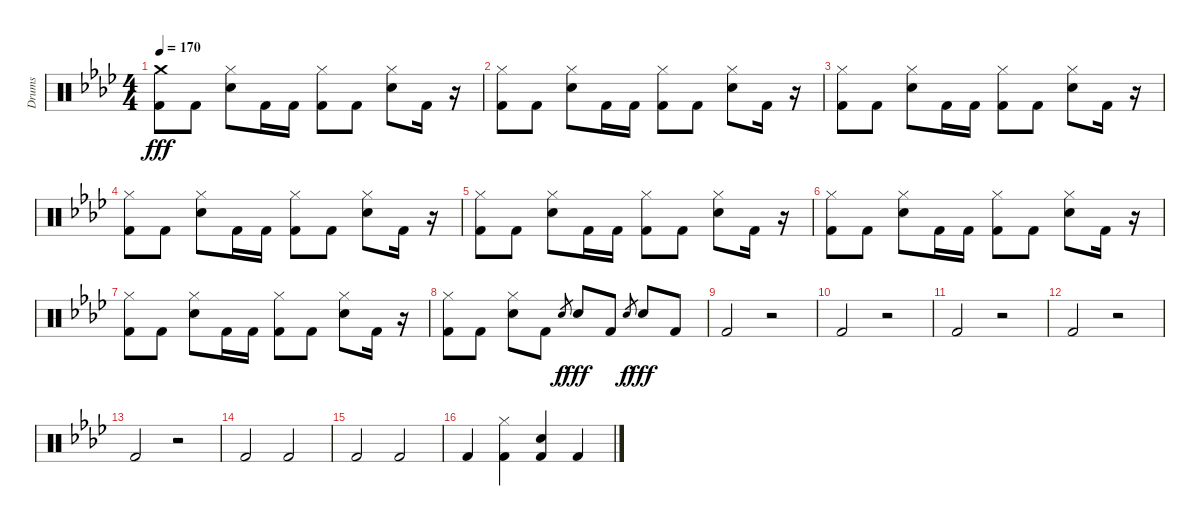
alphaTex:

\track ("Drums" "Drums") {instrument percussion}
\staff {score}
\articulation defaults
\ts (4 4)
\tempo 170
\clef neutral
\ks fminor
("Crash medium (hit)" "Kick (hit) 2").8{dy fff} "Kick (hit) 2".8 ("Hi-Hat (closed)" "Snare (hit) 2").8 "Kick (hit) 2".16 "Kick (hit) 2".16 ("Hi-Hat (closed)" "Kick (hit) 2").8 "Kick (hit) 2".8 ("Hi-Hat (closed)" "Snare (hit) 2").8 "Kick (hit) 2".16 r.16 |
("Hi-Hat (closed)" "Kick (hit) 2").8 "Kick (hit) 2".8 ("Hi-Hat (closed)" "Snare (hit) 2").8 "Kick (hit) 2".16 "Kick (hit) 2".16 ("Hi-Hat (closed)" "Kick (hit) 2").8 "Kick (hit) 2".8 ("Hi-Hat (closed)" "Snare (hit) 2").8 "Kick (hit) 2".16 r.16 |
("Hi-Hat (closed)" "Kick (hit) 2").8 "Kick (hit) 2".8 ("Hi-Hat (closed)" "Snare (hit) 2").8 "Kick (hit) 2".16 "Kick (hit) 2".16 ("Hi-Hat (closed)" "Kick (hit) 2").8 "Kick (hit) 2".8 ("Hi-Hat (closed)" "Snare (hit) 2").8 "Kick (hit) 2".16 r.16 |
("Hi-Hat (closed)" "Kick (hit) 2").8 "Kick (hit) 2".8 ("Hi-Hat (closed)" "Snare (hit) 2").8 "Kick (hit) 2".16 "Kick (hit) 2".16 ("Hi-Hat (closed)" "Kick (hit) 2").8 "Kick (hit) 2".8 ("Hi-Hat (closed)" "Snare (hit) 2").8 "Kick (hit) 2".16 r.16 |
("Hi-Hat (closed)" "Kick (hit) 2").8 "Kick (hit) 2".8 ("Hi-Hat (closed)" "Snare (hit) 2").8 "Kick (hit) 2".16 "Kick (hit) 2".16 ("Hi-Hat (closed)" "Kick (hit) 2").8 "Kick (hit) 2".8 ("Hi-Hat (closed)" "Snare (hit) 2").8 "Kick (hit) 2".16 r.16 |
("Hi-Hat (closed)" "Kick (hit) 2").8 "Kick (hit) 2".8 ("Hi-Hat (closed)" "Snare (hit) 2").8 "Kick (hit) 2".16 "Kick (hit) 2".16 ("Hi-Hat (closed)" "Kick (hit) 2").8 "Kick (hit) 2".8 ("Hi-Hat (closed)" "Snare (hit) 2").8 "Kick (hit) 2".16 r.16 |
("Hi-Hat (closed)" "Kick (hit) 2").8 "Kick (hit) 2".8 ("Hi-Hat (closed)" "Snare (hit) 2").8 "Kick (hit) 2".16 "Kick (hit) 2".16 ("Hi-Hat (closed)" "Kick (hit) 2").8 "Kick (hit) 2".8 ("Hi-Hat (closed)" "Snare (hit) 2").8 "Kick (hit) 2".16 r.16 |
("Hi-Hat (closed)" "Kick (hit) 2").8 "Kick (hit) 2".8 ("Hi-Hat (closed)" "Snare (hit) 2").8 "Kick (hit) 2".8 "Snare (hit) 2".8{gr dy f} "Snare (hit) 2".8{dy fff} "Kick (hit) 2".8 "Snare (hit) 2".8{gr dy f} "Snare (hit) 2".8{dy fff} "Kick (hit) 2".8 |
"Kick (hit) 2".2 r.2 |
"Kick (hit) 2".2 r.2 |
"Kick (hit) 2".2 r.2 |
"Kick (hit) 2".2 r.2 |
"Kick (hit) 2".2 r.2 |
"Kick (hit) 2".2 "Kick (hit) 2".2 |
"Kick (hit) 2".2 "Kick (hit) 2".2 |
"Kick (hit) 2".4 ("Hi-Hat (closed)" "Kick (hit) 2").4 ("Snare (hit) 2" "Kick (hit) 2").4 "Kick (hit) 2".4
